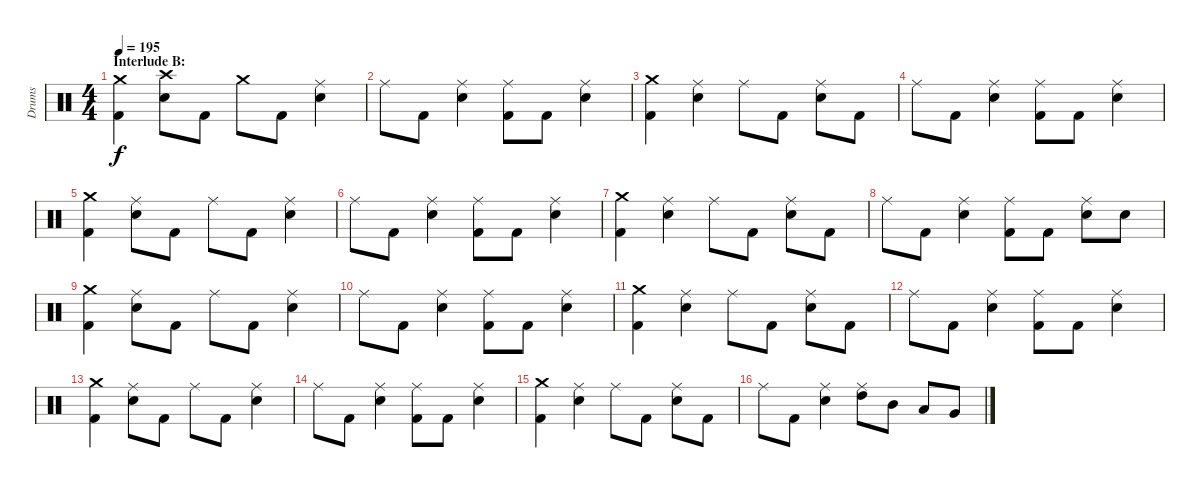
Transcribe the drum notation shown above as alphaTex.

\track ("Drums" "Drums") {instrument percussion}
\staff {score}
\articulation defaults
\ts (4 4)
\section ("" "Interlude B:")
\tempo 195
\clef neutral
\ks c
("Crash medium (hit)" "Kick (hit) 2").4{dy f} ("Crash high (hit)" "Electric Snare (hit)").8 "Kick (hit) 2".8 "Crash medium (hit)".8 "Kick (hit) 2".8 ("Ride (middle)" "Electric Snare (hit)").4 |
"Ride (middle)".8 "Kick (hit) 2".8 ("Ride (middle)" "Electric Snare (hit)").4 ("Ride (middle)" "Kick (hit) 2").8 "Kick (hit) 2".8 ("Ride (middle)" "Electric Snare (hit)").4 |
("Crash medium (hit)" "Kick (hit) 2").4 ("Ride (middle)" "Electric Snare (hit)").4 "Ride (middle)".8 "Kick (hit) 2".8 ("Ride (middle)" "Electric Snare (hit)").8 "Kick (hit) 2".8 |
"Ride (middle)".8 "Kick (hit) 2".8 ("Ride (middle)" "Electric Snare (hit)").4 ("Ride (middle)" "Kick (hit) 2").8 "Kick (hit) 2".8 ("Ride (middle)" "Electric Snare (hit)").4 |
("Crash medium (hit)" "Kick (hit) 2").4 ("Ride (middle)" "Electric Snare (hit)").8 "Kick (hit) 2".8 "Ride (middle)".8 "Kick (hit) 2".8 ("Ride (middle)" "Electric Snare (hit)").4 |
"Ride (middle)".8 "Kick (hit) 2".8 ("Ride (middle)" "Electric Snare (hit)").4 ("Ride (middle)" "Kick (hit) 2").8 "Kick (hit) 2".8 ("Ride (middle)" "Electric Snare (hit)").4 |
("Crash medium (hit)" "Kick (hit) 2").4 ("Ride (middle)" "Electric Snare (hit)").4 "Ride (middle)".8 "Kick (hit) 2".8 ("Ride (middle)" "Electric Snare (hit)").8 "Kick (hit) 2".8 |
"Ride (middle)".8 "Kick (hit) 2".8 ("Ride (middle)" "Electric Snare (hit)").4 ("Ride (middle)" "Kick (hit) 2").8 "Kick (hit) 2".8 ("Ride (middle)" "Electric Snare (hit)").8 "Electric Snare (hit)".8 |
("Crash medium (hit)" "Kick (hit) 2").4 ("Ride (middle)" "Electric Snare (hit)").8 "Kick (hit) 2".8 "Ride (middle)".8 "Kick (hit) 2".8 ("Ride (middle)" "Electric Snare (hit)").4 |
"Ride (middle)".8 "Kick (hit) 2".8 ("Ride (middle)" "Electric Snare (hit)").4 ("Ride (middle)" "Kick (hit) 2").8 "Kick (hit) 2".8 ("Ride (middle)" "Electric Snare (hit)").4 |
("Crash medium (hit)" "Kick (hit) 2").4 ("Ride (middle)" "Electric Snare (hit)").4 "Ride (middle)".8 "Kick (hit) 2".8 ("Ride (middle)" "Electric Snare (hit)").8 "Kick (hit) 2".8 |
"Ride (middle)".8 "Kick (hit) 2".8 ("Ride (middle)" "Electric Snare (hit)").4 ("Ride (middle)" "Kick (hit) 2").8 "Kick (hit) 2".8 ("Ride (middle)" "Electric Snare (hit)").4 |
("Crash medium (hit)" "Kick (hit) 2").4 ("Ride (middle)" "Electric Snare (hit)").8 "Kick (hit) 2".8 "Ride (middle)".8 "Kick (hit) 2".8 ("Ride (middle)" "Electric Snare (hit)").4 |
"Ride (middle)".8 "Kick (hit) 2".8 ("Ride (middle)" "Electric Snare (hit)").4 ("Ride (middle)" "Kick (hit) 2").8 "Kick (hit) 2".8 ("Ride (middle)" "Electric Snare (hit)").4 |
("Crash medium (hit)" "Kick (hit) 2").4 ("Ride (middle)" "Electric Snare (hit)").4 "Ride (middle)".8 "Kick (hit) 2".8 ("Ride (middle)" "Electric Snare (hit)").8 "Kick (hit) 2".8 |
"Ride (middle)".8 "Kick (hit) 2".8 ("Ride (middle)" "Electric Snare (hit)").4 ("Ride (middle)" "High Tom (hit)").8 "Mid Tom (hit)".8 "Low Tom (hit)".8 "Very Low Tom (hit)".8
